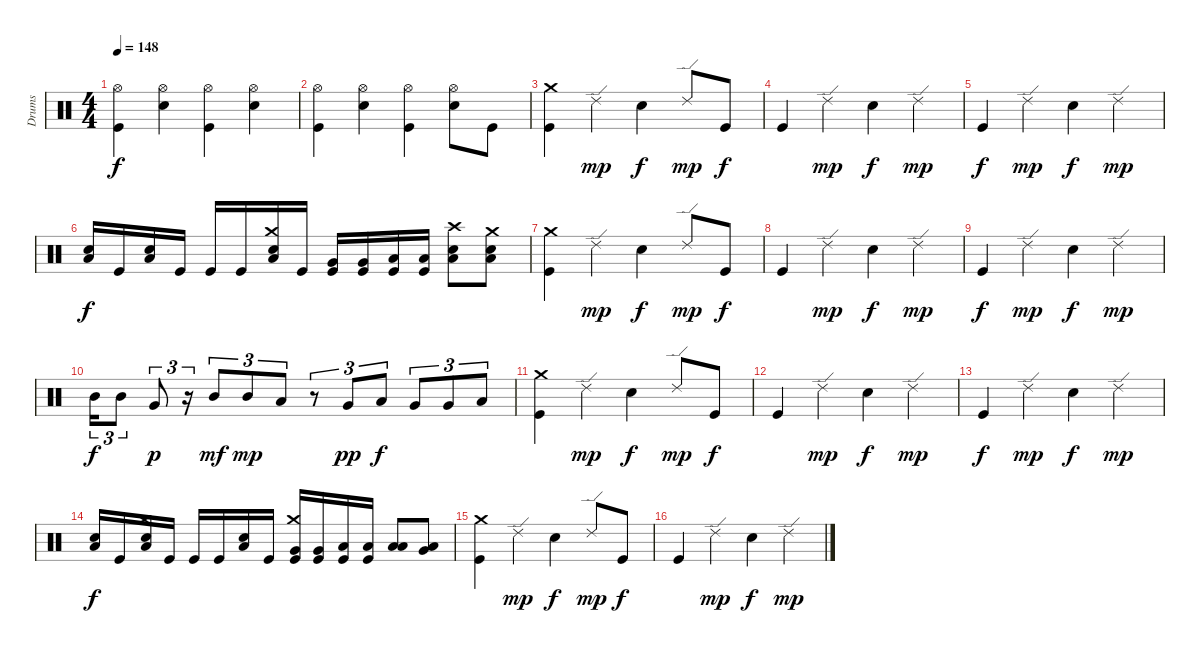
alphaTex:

\track ("Drums" "Drums") {instrument percussion}
\staff {score}
\articulation defaults
\ts (4 4)
\tempo 148
\clef neutral
\ks c
("Kick (hit)" "Hi-Hat (open)").4{dy f} ("Snare (hit) 2" "Hi-Hat (open)").4 ("Kick (hit)" "Hi-Hat (open)").4 ("Snare (hit) 2" "Hi-Hat (open)").4 |
("Kick (hit)" "Hi-Hat (open)").4 ("Snare (hit) 2" "Hi-Hat (open)").4 ("Kick (hit)" "Hi-Hat (open)").4 ("Snare (hit) 2" "Hi-Hat (open)").8 "Kick (hit)".8 |
("Kick (hit)" "Crash medium (hit)").4 "Ride (edge) 2".4{dy mp} "Snare (hit) 2".4{dy f} "Ride (edge) 2".8{dy mp} "Kick (hit)".8{dy f} |
"Kick (hit)".4 "Ride (edge) 2".4{dy mp} "Snare (hit) 2".4{dy f} "Ride (edge) 2".4{dy mp} |
"Kick (hit)".4{dy f} "Ride (edge) 2".4{dy mp} "Snare (hit) 2".4{dy f} "Ride (edge) 2".4{dy mp} |
("Snare (hit) 2" "Low Floor Tom (hit)").16{dy f} "Kick (hit)".16 ("Snare (hit) 2" "Low Floor Tom (hit)").16 "Kick (hit)".16 "Kick (hit)".16 "Kick (hit)".16 ("Snare (hit) 2" "Crash medium (hit)" "Low Tom (hit)").16 "Kick (hit)".16 ("Kick (hit)" "Very Low Tom (hit)").16 ("Kick (hit)" "Very Low Tom (hit)").16 ("Kick (hit)" "Low Floor Tom (hit)").16 ("Kick (hit)" "Low Floor Tom (hit)").16 ("Snare (hit) 2" "Crash high (hit)" "Low Floor Tom (hit)").8 ("Snare (hit) 2" "Crash medium (hit)" "Low Floor Tom (hit)").8 |
("Kick (hit)" "Crash medium (hit)").4 "Ride (edge) 2".4{dy mp} "Snare (hit) 2".4{dy f} "Ride (edge) 2".8{dy mp} "Kick (hit)".8{dy f} |
"Kick (hit)".4 "Ride (edge) 2".4{dy mp} "Snare (hit) 2".4{dy f} "Ride (edge) 2".4{dy mp} |
"Kick (hit)".4{dy f} "Ride (edge) 2".4{dy mp} "Snare (hit) 2".4{dy f} "Ride (edge) 2".4{dy mp} |
"Mid Tom (hit)".16{tu (3 2) dy f} "Mid Tom (hit)".8{tu (3 2)} "Very Low Tom (hit)".8{tu (3 2) dy p} r.16{tu (3 2)} "Mid Tom (hit)".8{tu (3 2) dy mf} "Mid Tom (hit)".8{tu (3 2) dy mp} "Low Tom (hit)".8{tu (3 2)} r.8{tu (3 2)} "Very Low Tom (hit)".8{tu (3 2) dy pp} "Low Tom (hit)".8{tu (3 2) dy f} "Very Low Tom (hit)".8{tu (3 2)} "Very Low Tom (hit)".8{tu (3 2)} "Low Floor Tom (hit)".8{tu (3 2)} |
("Kick (hit)" "Crash medium (hit)").4 "Ride (edge) 2".4{dy mp} "Snare (hit) 2".4{dy f} "Ride (edge) 2".8{dy mp} "Kick (hit)".8{dy f} |
"Kick (hit)".4 "Ride (edge) 2".4{dy mp} "Snare (hit) 2".4{dy f} "Ride (edge) 2".4{dy mp} |
"Kick (hit)".4{dy f} "Ride (edge) 2".4{dy mp} "Snare (hit) 2".4{dy f} "Ride (edge) 2".4{dy mp} |
("Snare (hit) 2" "Low Floor Tom (hit)").16{dy f} "Kick (hit)".16 ("Snare (hit) 2" "Crash medium (hit)" "Low Floor Tom (hit)").16 "Kick (hit)".16 "Kick (hit)".16 "Kick (hit)".16 ("Snare (hit) 2" "Low Tom (hit)").16 "Kick (hit)".16 ("Kick (hit)" "Crash medium (hit)" "Very Low Tom (hit)").16 ("Kick (hit)" "Very Low Tom (hit)").16 ("Kick (hit)" "Low Floor Tom (hit)").16 ("Kick (hit)" "Low Floor Tom (hit)").16 ("Low Tom (hit)" "Low Floor Tom (hit)").8 ("Very Low Tom (hit)" "Low Floor Tom (hit)").8 |
("Kick (hit)" "Crash medium (hit)").4 "Ride (edge) 2".4{dy mp} "Snare (hit) 2".4{dy f} "Ride (edge) 2".8{dy mp} "Kick (hit)".8{dy f} |
"Kick (hit)".4 "Ride (edge) 2".4{dy mp} "Snare (hit) 2".4{dy f} "Ride (edge) 2".4{dy mp}
